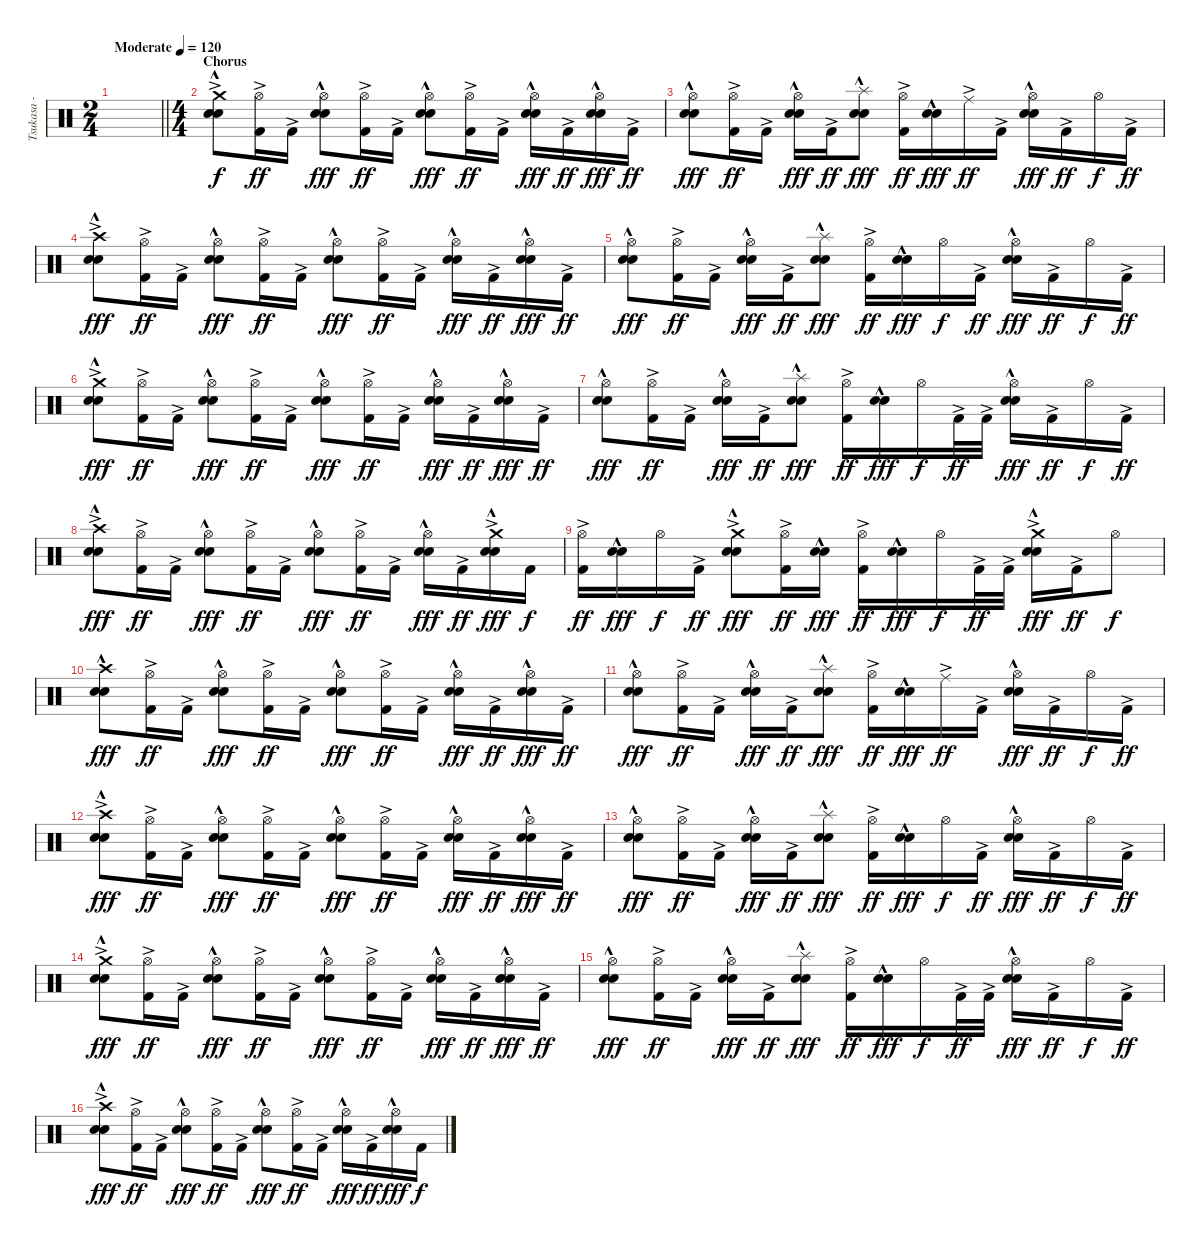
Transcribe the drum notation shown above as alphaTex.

\track ("Tsukasa - Drums" "Tsukasa - ") {instrument percussion}
\staff {score}
\articulation defaults
\ts (2 4)
\tempo (120 "Moderate")
\clef neutral
\barLineRight lightlight
\ks c
|
\ts (4 4)
\section ("" "Chorus")
("Crash medium (hit)"{ac} "Electric Snare (hit)"{hac} "Snare (hit) 2"{hac}).8 ("Hi-Hat (open)" "Kick (hit) 2"{ac}).16{dy ff} "Kick (hit) 2"{ac}.16 ("Hi-Hat (open)" "Electric Snare (hit)"{hac} "Snare (hit) 2"{hac}).8{dy fff} ("Hi-Hat (open)" "Kick (hit) 2"{ac}).16{dy ff} "Kick (hit) 2"{ac}.16 ("Hi-Hat (open)" "Electric Snare (hit)"{hac} "Snare (hit) 2"{hac}).8{dy fff} ("Hi-Hat (open)" "Kick (hit) 2"{ac}).16{dy ff} "Kick (hit) 2"{ac}.16 ("Hi-Hat (open)" "Electric Snare (hit)"{hac} "Snare (hit) 2"{hac}).16{dy fff} "Kick (hit) 2"{ac}.16{dy ff} ("Hi-Hat (open)" "Electric Snare (hit)"{hac} "Snare (hit) 2"{hac}).16{dy fff} "Kick (hit) 2"{ac}.16{dy ff} |
("Hi-Hat (open)" "Electric Snare (hit)"{hac} "Snare (hit) 2"{hac}).8{dy fff} ("Hi-Hat (open)" "Kick (hit) 2"{ac}).16{dy ff} "Kick (hit) 2"{ac}.16 ("Hi-Hat (open)" "Electric Snare (hit)"{hac} "Snare (hit) 2"{hac}).16{dy fff} "Kick (hit) 2"{ac}.16{dy ff} ("Splash (hit)"{hac} "Electric Snare (hit)"{hac} "Snare (hit) 2"{hac}).8{dy fff} ("Hi-Hat (open)" "Kick (hit) 2"{ac}).16{dy ff} ("Electric Snare (hit)"{hac} "Snare (hit) 2"{hac}).16{dy fff} "Ride (middle)"{ac}.16{dy ff} "Kick (hit) 2"{ac}.16 ("Hi-Hat (open)" "Electric Snare (hit)"{hac} "Snare (hit) 2"{hac}).16{dy fff} "Kick (hit) 2"{ac}.16{dy ff} "Hi-Hat (open)".16{dy f} "Kick (hit) 2"{ac}.16{dy ff} |
("Crash high (hit)"{ac} "Electric Snare (hit)"{hac} "Snare (hit) 2"{hac}).8{dy fff} ("Hi-Hat (open)" "Kick (hit) 2"{ac}).16{dy ff} "Kick (hit) 2"{ac}.16 ("Hi-Hat (open)" "Electric Snare (hit)"{hac} "Snare (hit) 2"{hac}).8{dy fff} ("Hi-Hat (open)" "Kick (hit) 2"{ac}).16{dy ff} "Kick (hit) 2"{ac}.16 ("Hi-Hat (open)" "Electric Snare (hit)"{hac} "Snare (hit) 2"{hac}).8{dy fff} ("Hi-Hat (open)" "Kick (hit) 2"{ac}).16{dy ff} "Kick (hit) 2"{ac}.16 ("Hi-Hat (open)" "Electric Snare (hit)"{hac} "Snare (hit) 2"{hac}).16{dy fff} "Kick (hit) 2"{ac}.16{dy ff} ("Hi-Hat (open)" "Electric Snare (hit)"{hac} "Snare (hit) 2"{hac}).16{dy fff} "Kick (hit) 2"{ac}.16{dy ff} |
("Hi-Hat (open)" "Electric Snare (hit)"{hac} "Snare (hit) 2"{hac}).8{dy fff} ("Hi-Hat (open)" "Kick (hit) 2"{ac}).16{dy ff} "Kick (hit) 2"{ac}.16 ("Hi-Hat (open)" "Electric Snare (hit)"{hac} "Snare (hit) 2"{hac}).16{dy fff} "Kick (hit) 2"{ac}.16{dy ff} ("Splash (hit)"{hac} "Electric Snare (hit)"{hac} "Snare (hit) 2"{hac}).8{dy fff} ("Hi-Hat (open)" "Kick (hit) 2"{ac}).16{dy ff} ("Electric Snare (hit)"{hac} "Snare (hit) 2"{hac}).16{dy fff} "Hi-Hat (open)".16{dy f} "Kick (hit) 2"{ac}.16{dy ff} ("Hi-Hat (open)" "Electric Snare (hit)"{hac} "Snare (hit) 2"{hac}).16{dy fff} "Kick (hit) 2"{ac}.16{dy ff} "Hi-Hat (open)".16{dy f} "Kick (hit) 2"{ac}.16{dy ff} |
("Crash medium (hit)"{ac} "Electric Snare (hit)"{hac} "Snare (hit) 2"{hac}).8{dy fff} ("Hi-Hat (open)" "Kick (hit) 2"{ac}).16{dy ff} "Kick (hit) 2"{ac}.16 ("Hi-Hat (open)" "Electric Snare (hit)"{hac} "Snare (hit) 2"{hac}).8{dy fff} ("Hi-Hat (open)" "Kick (hit) 2"{ac}).16{dy ff} "Kick (hit) 2"{ac}.16 ("Hi-Hat (open)" "Electric Snare (hit)"{hac} "Snare (hit) 2"{hac}).8{dy fff} ("Hi-Hat (open)" "Kick (hit) 2"{ac}).16{dy ff} "Kick (hit) 2"{ac}.16 ("Hi-Hat (open)" "Electric Snare (hit)"{hac} "Snare (hit) 2"{hac}).16{dy fff} "Kick (hit) 2"{ac}.16{dy ff} ("Hi-Hat (open)" "Electric Snare (hit)"{hac} "Snare (hit) 2"{hac}).16{dy fff} "Kick (hit) 2"{ac}.16{dy ff} |
("Hi-Hat (open)" "Electric Snare (hit)"{hac} "Snare (hit) 2"{hac}).8{dy fff} ("Hi-Hat (open)" "Kick (hit) 2"{ac}).16{dy ff} "Kick (hit) 2"{ac}.16 ("Hi-Hat (open)" "Electric Snare (hit)"{hac} "Snare (hit) 2"{hac}).16{dy fff} "Kick (hit) 2"{ac}.16{dy ff} ("Splash (hit)"{hac} "Electric Snare (hit)"{hac} "Snare (hit) 2"{hac}).8{dy fff} ("Hi-Hat (open)" "Kick (hit) 2"{ac}).16{dy ff} ("Electric Snare (hit)"{hac} "Snare (hit) 2"{hac}).16{dy fff} "Hi-Hat (open)".16{dy f} "Kick (hit) 2"{ac}.32{dy ff} "Kick (hit) 2"{ac}.32 ("Hi-Hat (open)" "Electric Snare (hit)"{hac} "Snare (hit) 2"{hac}).16{dy fff} "Kick (hit) 2"{ac}.16{dy ff} "Hi-Hat (open)".16{dy f} "Kick (hit) 2"{ac}.16{dy ff} |
("Crash high (hit)"{ac} "Electric Snare (hit)"{hac} "Snare (hit) 2"{hac}).8{dy fff} ("Hi-Hat (open)" "Kick (hit) 2"{ac}).16{dy ff} "Kick (hit) 2"{ac}.16 ("Hi-Hat (open)" "Electric Snare (hit)"{hac} "Snare (hit) 2"{hac}).8{dy fff} ("Hi-Hat (open)" "Kick (hit) 2"{ac}).16{dy ff} "Kick (hit) 2"{ac}.16 ("Hi-Hat (open)" "Electric Snare (hit)"{hac} "Snare (hit) 2"{hac}).8{dy fff} ("Hi-Hat (open)" "Kick (hit) 2"{ac}).16{dy ff} "Kick (hit) 2"{ac}.16 ("Hi-Hat (open)" "Electric Snare (hit)"{hac} "Snare (hit) 2"{hac}).16{dy fff} "Kick (hit) 2"{ac}.16{dy ff} ("Crash medium (hit)"{ac} "Electric Snare (hit)"{hac} "Snare (hit) 2"{hac}).16{dy fff} "Kick (hit) 2".16{dy f} |
("Hi-Hat (open)" "Kick (hit) 2"{ac}).16{dy ff} ("Electric Snare (hit)"{hac} "Snare (hit) 2"{hac}).16{dy fff} "Hi-Hat (open)".16{dy f} "Kick (hit) 2"{ac}.16{dy ff} ("Crash medium (hit)"{ac} "Electric Snare (hit)"{hac} "Snare (hit) 2"{hac}).8{dy fff} ("Hi-Hat (open)" "Kick (hit) 2"{ac}).16{dy ff} ("Electric Snare (hit)"{hac} "Snare (hit) 2"{hac}).16{dy fff} ("Hi-Hat (open)" "Kick (hit) 2"{ac}).16{dy ff} ("Electric Snare (hit)"{hac} "Snare (hit) 2"{hac}).16{dy fff} "Hi-Hat (open)".16{dy f} "Kick (hit) 2"{ac}.32{dy ff} "Kick (hit) 2"{ac}.32 ("Crash medium (hit)"{ac} "Electric Snare (hit)"{hac} "Snare (hit) 2"{hac}).16{dy fff} "Kick (hit) 2"{ac}.16{dy ff} "Hi-Hat (open)".8{dy f} |
("Crash high (hit)" "Electric Snare (hit)"{hac} "Snare (hit) 2"{hac}).8{dy fff} ("Hi-Hat (open)" "Kick (hit) 2"{ac}).16{dy ff} "Kick (hit) 2"{ac}.16 ("Hi-Hat (open)" "Electric Snare (hit)"{hac} "Snare (hit) 2"{hac}).8{dy fff} ("Hi-Hat (open)" "Kick (hit) 2"{ac}).16{dy ff} "Kick (hit) 2"{ac}.16 ("Hi-Hat (open)" "Electric Snare (hit)"{hac} "Snare (hit) 2"{hac}).8{dy fff} ("Hi-Hat (open)" "Kick (hit) 2"{ac}).16{dy ff} "Kick (hit) 2"{ac}.16 ("Hi-Hat (open)" "Electric Snare (hit)"{hac} "Snare (hit) 2"{hac}).16{dy fff} "Kick (hit) 2"{ac}.16{dy ff} ("Hi-Hat (open)" "Electric Snare (hit)"{hac} "Snare (hit) 2"{hac}).16{dy fff} "Kick (hit) 2"{ac}.16{dy ff} |
("Hi-Hat (open)" "Electric Snare (hit)"{hac} "Snare (hit) 2"{hac}).8{dy fff} ("Hi-Hat (open)" "Kick (hit) 2"{ac}).16{dy ff} "Kick (hit) 2"{ac}.16 ("Hi-Hat (open)" "Electric Snare (hit)"{hac} "Snare (hit) 2"{hac}).16{dy fff} "Kick (hit) 2"{ac}.16{dy ff} ("Splash (hit)"{hac} "Electric Snare (hit)"{hac} "Snare (hit) 2"{hac}).8{dy fff} ("Hi-Hat (open)" "Kick (hit) 2"{ac}).16{dy ff} ("Electric Snare (hit)"{hac} "Snare (hit) 2"{hac}).16{dy fff} "Ride (middle)"{ac}.16{dy ff} "Kick (hit) 2"{ac}.16 ("Hi-Hat (open)" "Electric Snare (hit)"{hac} "Snare (hit) 2"{hac}).16{dy fff} "Kick (hit) 2"{ac}.16{dy ff} "Hi-Hat (open)".16{dy f} "Kick (hit) 2"{ac}.16{dy ff} |
("Crash high (hit)"{ac} "Electric Snare (hit)"{hac} "Snare (hit) 2"{hac}).8{dy fff} ("Hi-Hat (open)" "Kick (hit) 2"{ac}).16{dy ff} "Kick (hit) 2"{ac}.16 ("Hi-Hat (open)" "Electric Snare (hit)"{hac} "Snare (hit) 2"{hac}).8{dy fff} ("Hi-Hat (open)" "Kick (hit) 2"{ac}).16{dy ff} "Kick (hit) 2"{ac}.16 ("Hi-Hat (open)" "Electric Snare (hit)"{hac} "Snare (hit) 2"{hac}).8{dy fff} ("Hi-Hat (open)" "Kick (hit) 2"{ac}).16{dy ff} "Kick (hit) 2"{ac}.16 ("Hi-Hat (open)" "Electric Snare (hit)"{hac} "Snare (hit) 2"{hac}).16{dy fff} "Kick (hit) 2"{ac}.16{dy ff} ("Hi-Hat (open)" "Electric Snare (hit)"{hac} "Snare (hit) 2"{hac}).16{dy fff} "Kick (hit) 2"{ac}.16{dy ff} |
("Hi-Hat (open)" "Electric Snare (hit)"{hac} "Snare (hit) 2"{hac}).8{dy fff} ("Hi-Hat (open)" "Kick (hit) 2"{ac}).16{dy ff} "Kick (hit) 2"{ac}.16 ("Hi-Hat (open)" "Electric Snare (hit)"{hac} "Snare (hit) 2"{hac}).16{dy fff} "Kick (hit) 2"{ac}.16{dy ff} ("Splash (hit)"{hac} "Electric Snare (hit)"{hac} "Snare (hit) 2"{hac}).8{dy fff} ("Hi-Hat (open)" "Kick (hit) 2"{ac}).16{dy ff} ("Electric Snare (hit)"{hac} "Snare (hit) 2"{hac}).16{dy fff} "Hi-Hat (open)".16{dy f} "Kick (hit) 2"{ac}.16{dy ff} ("Hi-Hat (open)" "Electric Snare (hit)"{hac} "Snare (hit) 2"{hac}).16{dy fff} "Kick (hit) 2"{ac}.16{dy ff} "Hi-Hat (open)".16{dy f} "Kick (hit) 2"{ac}.16{dy ff} |
("Crash medium (hit)"{ac} "Electric Snare (hit)"{hac} "Snare (hit) 2"{hac}).8{dy fff} ("Hi-Hat (open)" "Kick (hit) 2"{ac}).16{dy ff} "Kick (hit) 2"{ac}.16 ("Hi-Hat (open)" "Electric Snare (hit)"{hac} "Snare (hit) 2"{hac}).8{dy fff} ("Hi-Hat (open)" "Kick (hit) 2"{ac}).16{dy ff} "Kick (hit) 2"{ac}.16 ("Hi-Hat (open)" "Electric Snare (hit)"{hac} "Snare (hit) 2"{hac}).8{dy fff} ("Hi-Hat (open)" "Kick (hit) 2"{ac}).16{dy ff} "Kick (hit) 2"{ac}.16 ("Hi-Hat (open)" "Electric Snare (hit)"{hac} "Snare (hit) 2"{hac}).16{dy fff} "Kick (hit) 2"{ac}.16{dy ff} ("Hi-Hat (open)" "Electric Snare (hit)"{hac} "Snare (hit) 2"{hac}).16{dy fff} "Kick (hit) 2"{ac}.16{dy ff} |
("Hi-Hat (open)" "Electric Snare (hit)"{hac} "Snare (hit) 2"{hac}).8{dy fff} ("Hi-Hat (open)" "Kick (hit) 2"{ac}).16{dy ff} "Kick (hit) 2"{ac}.16 ("Hi-Hat (open)" "Electric Snare (hit)"{hac} "Snare (hit) 2"{hac}).16{dy fff} "Kick (hit) 2"{ac}.16{dy ff} ("Splash (hit)"{hac} "Electric Snare (hit)"{hac} "Snare (hit) 2"{hac}).8{dy fff} ("Hi-Hat (open)" "Kick (hit) 2"{ac}).16{dy ff} ("Electric Snare (hit)"{hac} "Snare (hit) 2"{hac}).16{dy fff} "Hi-Hat (open)".16{dy f} "Kick (hit) 2"{ac}.32{dy ff} "Kick (hit) 2"{ac}.32 ("Hi-Hat (open)" "Electric Snare (hit)"{hac} "Snare (hit) 2"{hac}).16{dy fff} "Kick (hit) 2"{ac}.16{dy ff} "Hi-Hat (open)".16{dy f} "Kick (hit) 2"{ac}.16{dy ff} |
("Crash high (hit)"{ac} "Electric Snare (hit)"{hac} "Snare (hit) 2"{hac}).8{dy fff} ("Hi-Hat (open)" "Kick (hit) 2"{ac}).16{dy ff} "Kick (hit) 2"{ac}.16 ("Hi-Hat (open)" "Electric Snare (hit)"{hac} "Snare (hit) 2"{hac}).8{dy fff} ("Hi-Hat (open)" "Kick (hit) 2"{ac}).16{dy ff} "Kick (hit) 2"{ac}.16 ("Hi-Hat (open)" "Electric Snare (hit)"{hac} "Snare (hit) 2"{hac}).8{dy fff} ("Hi-Hat (open)" "Kick (hit) 2"{ac}).16{dy ff} "Kick (hit) 2"{ac}.16 ("Hi-Hat (open)" "Electric Snare (hit)"{hac} "Snare (hit) 2"{hac}).16{dy fff} "Kick (hit) 2"{ac}.16{dy ff} ("Hi-Hat (open)" "Electric Snare (hit)"{hac} "Snare (hit) 2"{hac}).16{dy fff} "Kick (hit) 2".16{dy f}
